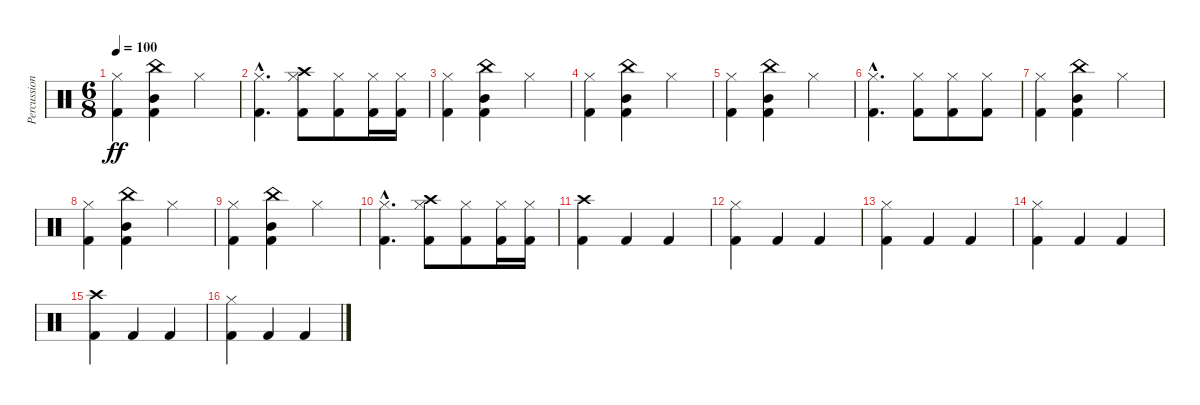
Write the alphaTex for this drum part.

\track ("Percussion" "Percussion") {instrument percussion}
\staff {score}
\articulation defaults
\ts (6 8)
\tempo 100
\clef neutral
\ks c
("Kick (hit) 2" "Hi-Hat (closed)").4{dy ff} ("Kick (hit) 2" "Mid Tom (hit)" "China (hit)").4 "Hi-Hat (closed)".4 |
("Kick (hit) 2"{hac} "Hi-Hat (closed)"{hac}).4{d} ("Kick (hit) 2" "Hi-Hat (closed)" "Crash high (hit)").8 ("Kick (hit) 2" "Hi-Hat (closed)").8 ("Kick (hit) 2" "Hi-Hat (closed)").16 ("Kick (hit) 2" "Hi-Hat (closed)").16 |
("Kick (hit) 2" "Hi-Hat (closed)").4 ("Kick (hit) 2" "Mid Tom (hit)" "China (hit)").4 "Hi-Hat (closed)".4 |
("Kick (hit) 2" "Hi-Hat (closed)").4 ("Kick (hit) 2" "Mid Tom (hit)" "China (hit)").4 "Hi-Hat (closed)".4 |
("Kick (hit) 2" "Hi-Hat (closed)").4 ("Kick (hit) 2" "Mid Tom (hit)" "China (hit)").4 "Hi-Hat (closed)".4 |
("Kick (hit) 2"{hac} "Hi-Hat (closed)"{hac}).4{d} ("Kick (hit) 2" "Hi-Hat (closed)").8 ("Kick (hit) 2" "Hi-Hat (closed)").8 ("Kick (hit) 2" "Hi-Hat (closed)").8 |
("Kick (hit) 2" "Hi-Hat (closed)").4 ("Kick (hit) 2" "Mid Tom (hit)" "China (hit)").4 "Hi-Hat (closed)".4 |
("Kick (hit) 2" "Hi-Hat (closed)").4 ("Kick (hit) 2" "Mid Tom (hit)" "China (hit)").4 "Hi-Hat (closed)".4 |
("Kick (hit) 2" "Hi-Hat (closed)").4 ("Kick (hit) 2" "Mid Tom (hit)" "China (hit)").4 "Hi-Hat (closed)".4 |
("Kick (hit) 2"{hac} "Hi-Hat (closed)"{hac}).4{d} ("Kick (hit) 2" "Hi-Hat (closed)" "Crash high (hit)").8 ("Kick (hit) 2" "Hi-Hat (closed)").8 ("Kick (hit) 2" "Hi-Hat (closed)").16 ("Kick (hit) 2" "Hi-Hat (closed)").16 |
("Kick (hit) 2" "Crash high (hit)").4 "Kick (hit) 2".4 "Kick (hit) 2".4 |
("Kick (hit) 2" "Hi-Hat (closed)").4 "Kick (hit) 2".4 "Kick (hit) 2".4 |
("Kick (hit) 2" "Hi-Hat (closed)").4 "Kick (hit) 2".4 "Kick (hit) 2".4 |
("Kick (hit) 2" "Hi-Hat (closed)").4 "Kick (hit) 2".4 "Kick (hit) 2".4 |
("Kick (hit) 2" "Crash high (hit)").4 "Kick (hit) 2".4 "Kick (hit) 2".4 |
("Kick (hit) 2" "Hi-Hat (closed)").4 "Kick (hit) 2".4 "Kick (hit) 2".4
